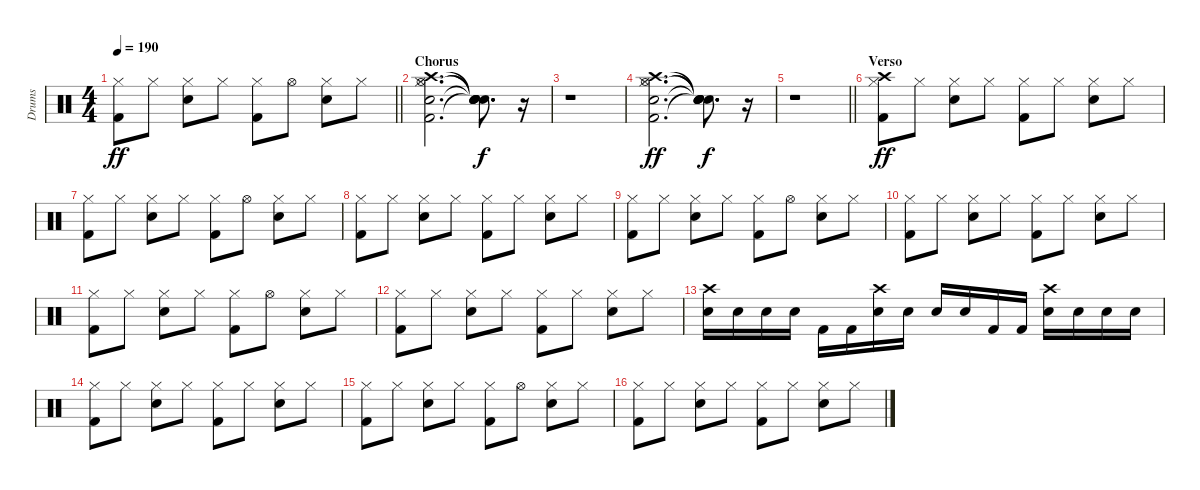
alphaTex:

\track ("Drums" "Drums") {instrument percussion}
\staff {score}
\articulation defaults
\ts (4 4)
\tempo 190
\clef neutral
\barLineRight lightlight
\ks c
("Kick (hit) 2" "Hi-Hat (closed)").8{dy ff} "Hi-Hat (closed)".8 ("Snare (hit) 2" "Hi-Hat (closed)").8 "Hi-Hat (closed)".8 ("Kick (hit) 2" "Hi-Hat (closed)").8 "Hi-Hat (open)".8 ("Snare (hit) 2" "Hi-Hat (closed)").8 "Hi-Hat (closed)".8 |
\section ("" "Chorus")
("Kick (hit) 2" "Snare (hit) 2" "Hi-Hat (closed)" "Hi-Hat (open)" "Crash high (hit)").2{d} ("Snare (hit)"{t} "Snare (hit)"{t} "Snare (hit)"{t} "Snare (hit)"{t} "Snare (hit)"{t}).8{d dy f} r.16 |
r.1 |
("Kick (hit) 2" "Snare (hit) 2" "Hi-Hat (closed)" "Hi-Hat (open)" "Crash high (hit)").2{d dy ff} ("Snare (hit)"{t} "Snare (hit)"{t} "Snare (hit)"{t} "Snare (hit)"{t} "Snare (hit)"{t}).8{d dy f} r.16 |
\barLineRight lightlight
r.1 |
\section ("" "Verso")
("Kick (hit) 2" "Hi-Hat (closed)" "Crash high (hit)").8{dy ff} "Hi-Hat (closed)".8 ("Snare (hit) 2" "Hi-Hat (closed)").8 "Hi-Hat (closed)".8 ("Kick (hit) 2" "Hi-Hat (closed)").8 "Hi-Hat (closed)".8 ("Snare (hit) 2" "Hi-Hat (closed)").8 "Hi-Hat (closed)".8 |
("Kick (hit) 2" "Hi-Hat (closed)").8 "Hi-Hat (closed)".8 ("Snare (hit) 2" "Hi-Hat (closed)").8 "Hi-Hat (closed)".8 ("Kick (hit) 2" "Hi-Hat (closed)").8 "Hi-Hat (open)".8 ("Snare (hit) 2" "Hi-Hat (closed)").8 "Hi-Hat (closed)".8 |
("Kick (hit) 2" "Hi-Hat (closed)").8 "Hi-Hat (closed)".8 ("Snare (hit) 2" "Hi-Hat (closed)").8 "Hi-Hat (closed)".8 ("Kick (hit) 2" "Hi-Hat (closed)").8 "Hi-Hat (closed)".8 ("Snare (hit) 2" "Hi-Hat (closed)").8 "Hi-Hat (closed)".8 |
("Kick (hit) 2" "Hi-Hat (closed)").8 "Hi-Hat (closed)".8 ("Snare (hit) 2" "Hi-Hat (closed)").8 "Hi-Hat (closed)".8 ("Kick (hit) 2" "Hi-Hat (closed)").8 "Hi-Hat (open)".8 ("Snare (hit) 2" "Hi-Hat (closed)").8 "Hi-Hat (closed)".8 |
("Kick (hit) 2" "Hi-Hat (closed)").8 "Hi-Hat (closed)".8 ("Snare (hit) 2" "Hi-Hat (closed)").8 "Hi-Hat (closed)".8 ("Kick (hit) 2" "Hi-Hat (closed)").8 "Hi-Hat (closed)".8 ("Snare (hit) 2" "Hi-Hat (closed)").8 "Hi-Hat (closed)".8 |
("Kick (hit) 2" "Hi-Hat (closed)").8 "Hi-Hat (closed)".8 ("Snare (hit) 2" "Hi-Hat (closed)").8 "Hi-Hat (closed)".8 ("Kick (hit) 2" "Hi-Hat (closed)").8 "Hi-Hat (open)".8 ("Snare (hit) 2" "Hi-Hat (closed)").8 "Hi-Hat (closed)".8 |
("Kick (hit) 2" "Hi-Hat (closed)").8 "Hi-Hat (closed)".8 ("Snare (hit) 2" "Hi-Hat (closed)").8 "Hi-Hat (closed)".8 ("Kick (hit) 2" "Hi-Hat (closed)").8 "Hi-Hat (closed)".8 ("Snare (hit) 2" "Hi-Hat (closed)").8 "Hi-Hat (closed)".8 |
("Snare (hit) 2" "Crash high (hit)").16 "Snare (hit) 2".16 "Snare (hit) 2".16 "Snare (hit) 2".16 "Kick (hit) 2".16 "Kick (hit) 2".16 ("Snare (hit) 2" "Crash high (hit)").16 "Snare (hit) 2".16 "Snare (hit) 2".16 "Snare (hit) 2".16 "Kick (hit) 2".16 "Kick (hit) 2".16 ("Snare (hit) 2" "Crash high (hit)").16 "Snare (hit) 2".16 "Snare (hit) 2".16 "Snare (hit) 2".16 |
("Kick (hit) 2" "Hi-Hat (closed)").8 "Hi-Hat (closed)".8 ("Snare (hit) 2" "Hi-Hat (closed)").8 "Hi-Hat (closed)".8 ("Kick (hit) 2" "Hi-Hat (closed)").8 "Hi-Hat (closed)".8 ("Snare (hit) 2" "Hi-Hat (closed)").8 "Hi-Hat (closed)".8 |
("Kick (hit) 2" "Hi-Hat (closed)").8 "Hi-Hat (closed)".8 ("Snare (hit) 2" "Hi-Hat (closed)").8 "Hi-Hat (closed)".8 ("Kick (hit) 2" "Hi-Hat (closed)").8 "Hi-Hat (open)".8 ("Snare (hit) 2" "Hi-Hat (closed)").8 "Hi-Hat (closed)".8 |
("Kick (hit) 2" "Hi-Hat (closed)").8 "Hi-Hat (closed)".8 ("Snare (hit) 2" "Hi-Hat (closed)").8 "Hi-Hat (closed)".8 ("Kick (hit) 2" "Hi-Hat (closed)").8 "Hi-Hat (closed)".8 ("Snare (hit) 2" "Hi-Hat (closed)").8 "Hi-Hat (closed)".8
